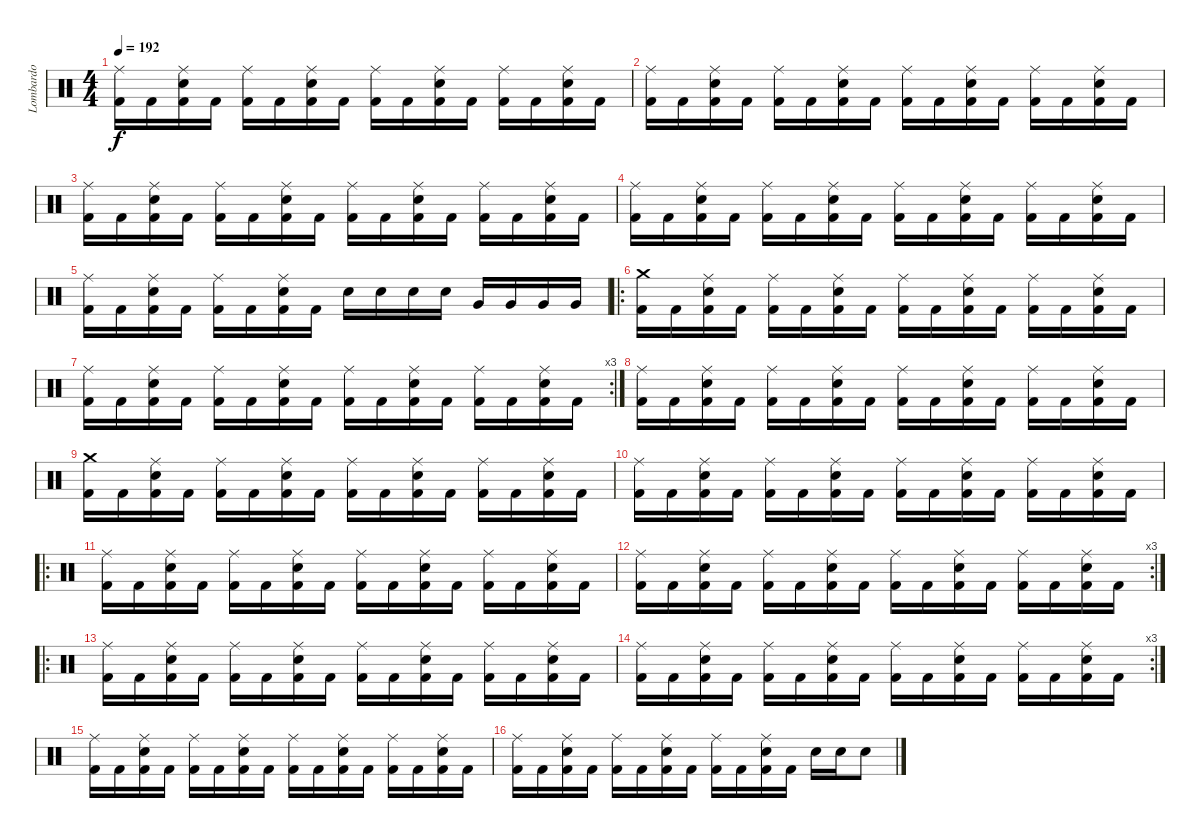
\track ("Lombardo" "Lombardo") {instrument percussion}
\staff {score}
\articulation defaults
\ts (4 4)
\tempo 192
\clef neutral
\ks c
("Ride (middle)" "Kick (hit) 2").16{dy f} "Kick (hit) 2".16 ("Ride (middle)" "Snare (hit) 2" "Kick (hit) 2").16 "Kick (hit) 2".16 ("Ride (middle)" "Kick (hit) 2").16 "Kick (hit) 2".16 ("Ride (middle)" "Snare (hit) 2" "Kick (hit) 2").16 "Kick (hit) 2".16 ("Ride (middle)" "Kick (hit) 2").16 "Kick (hit) 2".16 ("Ride (middle)" "Snare (hit) 2" "Kick (hit) 2").16 "Kick (hit) 2".16 ("Ride (middle)" "Kick (hit) 2").16 "Kick (hit) 2".16 ("Ride (middle)" "Snare (hit) 2" "Kick (hit) 2").16 "Kick (hit) 2".16 |
("Ride (middle)" "Kick (hit) 2").16 "Kick (hit) 2".16 ("Ride (middle)" "Snare (hit) 2" "Kick (hit) 2").16 "Kick (hit) 2".16 ("Ride (middle)" "Kick (hit) 2").16 "Kick (hit) 2".16 ("Ride (middle)" "Snare (hit) 2" "Kick (hit) 2").16 "Kick (hit) 2".16 ("Ride (middle)" "Kick (hit) 2").16 "Kick (hit) 2".16 ("Ride (middle)" "Snare (hit) 2" "Kick (hit) 2").16 "Kick (hit) 2".16 ("Ride (middle)" "Kick (hit) 2").16 "Kick (hit) 2".16 ("Ride (middle)" "Snare (hit) 2" "Kick (hit) 2").16 "Kick (hit) 2".16 |
("Ride (middle)" "Kick (hit) 2").16 "Kick (hit) 2".16 ("Ride (middle)" "Snare (hit) 2" "Kick (hit) 2").16 "Kick (hit) 2".16 ("Ride (middle)" "Kick (hit) 2").16 "Kick (hit) 2".16 ("Ride (middle)" "Snare (hit) 2" "Kick (hit) 2").16 "Kick (hit) 2".16 ("Ride (middle)" "Kick (hit) 2").16 "Kick (hit) 2".16 ("Ride (middle)" "Snare (hit) 2" "Kick (hit) 2").16 "Kick (hit) 2".16 ("Ride (middle)" "Kick (hit) 2").16 "Kick (hit) 2".16 ("Ride (middle)" "Snare (hit) 2" "Kick (hit) 2").16 "Kick (hit) 2".16 |
("Ride (middle)" "Kick (hit) 2").16 "Kick (hit) 2".16 ("Ride (middle)" "Snare (hit) 2" "Kick (hit) 2").16 "Kick (hit) 2".16 ("Ride (middle)" "Kick (hit) 2").16 "Kick (hit) 2".16 ("Ride (middle)" "Snare (hit) 2" "Kick (hit) 2").16 "Kick (hit) 2".16 ("Ride (middle)" "Kick (hit) 2").16 "Kick (hit) 2".16 ("Ride (middle)" "Snare (hit) 2" "Kick (hit) 2").16 "Kick (hit) 2".16 ("Ride (middle)" "Kick (hit) 2").16 "Kick (hit) 2".16 ("Ride (middle)" "Snare (hit) 2" "Kick (hit) 2").16 "Kick (hit) 2".16 |
("Ride (middle)" "Kick (hit) 2").16 "Kick (hit) 2".16 ("Ride (middle)" "Snare (hit) 2" "Kick (hit) 2").16 "Kick (hit) 2".16 ("Ride (middle)" "Kick (hit) 2").16 "Kick (hit) 2".16 ("Ride (middle)" "Snare (hit) 2" "Kick (hit) 2").16 "Kick (hit) 2".16 "Snare (hit) 2".16 "Snare (hit) 2".16 "Snare (hit) 2".16 "Snare (hit) 2".16 "Very Low Tom (hit)".16 "Very Low Tom (hit)".16 "Very Low Tom (hit)".16 "Very Low Tom (hit)".16 |
\ro
("Crash medium (hit)" "Kick (hit) 2").16 "Kick (hit) 2".16 ("Ride (middle)" "Snare (hit) 2" "Kick (hit) 2").16 "Kick (hit) 2".16 ("Ride (middle)" "Kick (hit) 2").16 "Kick (hit) 2".16 ("Ride (middle)" "Snare (hit) 2" "Kick (hit) 2").16 "Kick (hit) 2".16 ("Ride (middle)" "Kick (hit) 2").16 "Kick (hit) 2".16 ("Ride (middle)" "Snare (hit) 2" "Kick (hit) 2").16 "Kick (hit) 2".16 ("Ride (middle)" "Kick (hit) 2").16 "Kick (hit) 2".16 ("Ride (middle)" "Snare (hit) 2" "Kick (hit) 2").16 "Kick (hit) 2".16 |
\rc 3
("Ride (middle)" "Kick (hit) 2").16 "Kick (hit) 2".16 ("Ride (middle)" "Snare (hit) 2" "Kick (hit) 2").16 "Kick (hit) 2".16 ("Ride (middle)" "Kick (hit) 2").16 "Kick (hit) 2".16 ("Ride (middle)" "Snare (hit) 2" "Kick (hit) 2").16 "Kick (hit) 2".16 ("Ride (middle)" "Kick (hit) 2").16 "Kick (hit) 2".16 ("Ride (middle)" "Snare (hit) 2" "Kick (hit) 2").16 "Kick (hit) 2".16 ("Ride (middle)" "Kick (hit) 2").16 "Kick (hit) 2".16 ("Ride (middle)" "Snare (hit) 2" "Kick (hit) 2").16 "Kick (hit) 2".16 |
("Ride (middle)" "Kick (hit) 2").16 "Kick (hit) 2".16 ("Ride (middle)" "Snare (hit) 2" "Kick (hit) 2").16 "Kick (hit) 2".16 ("Ride (middle)" "Kick (hit) 2").16 "Kick (hit) 2".16 ("Ride (middle)" "Snare (hit) 2" "Kick (hit) 2").16 "Kick (hit) 2".16 ("Ride (middle)" "Kick (hit) 2").16 "Kick (hit) 2".16 ("Ride (middle)" "Snare (hit) 2" "Kick (hit) 2").16 "Kick (hit) 2".16 ("Ride (middle)" "Kick (hit) 2").16 "Kick (hit) 2".16 ("Ride (middle)" "Snare (hit) 2" "Kick (hit) 2").16 "Kick (hit) 2".16 |
("Crash medium (hit)" "Kick (hit) 2").16 "Kick (hit) 2".16 ("Ride (middle)" "Snare (hit) 2" "Kick (hit) 2").16 "Kick (hit) 2".16 ("Ride (middle)" "Kick (hit) 2").16 "Kick (hit) 2".16 ("Ride (middle)" "Snare (hit) 2" "Kick (hit) 2").16 "Kick (hit) 2".16 ("Ride (middle)" "Kick (hit) 2").16 "Kick (hit) 2".16 ("Ride (middle)" "Snare (hit) 2" "Kick (hit) 2").16 "Kick (hit) 2".16 ("Ride (middle)" "Kick (hit) 2").16 "Kick (hit) 2".16 ("Ride (middle)" "Snare (hit) 2" "Kick (hit) 2").16 "Kick (hit) 2".16 |
("Ride (middle)" "Kick (hit) 2").16 "Kick (hit) 2".16 ("Ride (middle)" "Snare (hit) 2" "Kick (hit) 2").16 "Kick (hit) 2".16 ("Ride (middle)" "Kick (hit) 2").16 "Kick (hit) 2".16 ("Ride (middle)" "Snare (hit) 2" "Kick (hit) 2").16 "Kick (hit) 2".16 ("Ride (middle)" "Kick (hit) 2").16 "Kick (hit) 2".16 ("Ride (middle)" "Snare (hit) 2" "Kick (hit) 2").16 "Kick (hit) 2".16 ("Ride (middle)" "Kick (hit) 2").16 "Kick (hit) 2".16 ("Ride (middle)" "Snare (hit) 2" "Kick (hit) 2").16 "Kick (hit) 2".16 |
\ro
("Ride (middle)" "Kick (hit) 2").16 "Kick (hit) 2".16 ("Ride (middle)" "Snare (hit) 2" "Kick (hit) 2").16 "Kick (hit) 2".16 ("Ride (middle)" "Kick (hit) 2").16 "Kick (hit) 2".16 ("Ride (middle)" "Snare (hit) 2" "Kick (hit) 2").16 "Kick (hit) 2".16 ("Ride (middle)" "Kick (hit) 2").16 "Kick (hit) 2".16 ("Ride (middle)" "Snare (hit) 2" "Kick (hit) 2").16 "Kick (hit) 2".16 ("Ride (middle)" "Kick (hit) 2").16 "Kick (hit) 2".16 ("Ride (middle)" "Snare (hit) 2" "Kick (hit) 2").16 "Kick (hit) 2".16 |
\rc 3
("Ride (middle)" "Kick (hit) 2").16 "Kick (hit) 2".16 ("Ride (middle)" "Snare (hit) 2" "Kick (hit) 2").16 "Kick (hit) 2".16 ("Ride (middle)" "Kick (hit) 2").16 "Kick (hit) 2".16 ("Ride (middle)" "Snare (hit) 2" "Kick (hit) 2").16 "Kick (hit) 2".16 ("Ride (middle)" "Kick (hit) 2").16 "Kick (hit) 2".16 ("Ride (middle)" "Snare (hit) 2" "Kick (hit) 2").16 "Kick (hit) 2".16 ("Ride (middle)" "Kick (hit) 2").16 "Kick (hit) 2".16 ("Ride (middle)" "Snare (hit) 2" "Kick (hit) 2").16 "Kick (hit) 2".16 |
\ro
("Ride (middle)" "Kick (hit) 2").16 "Kick (hit) 2".16 ("Ride (middle)" "Snare (hit) 2" "Kick (hit) 2").16 "Kick (hit) 2".16 ("Ride (middle)" "Kick (hit) 2").16 "Kick (hit) 2".16 ("Ride (middle)" "Snare (hit) 2" "Kick (hit) 2").16 "Kick (hit) 2".16 ("Ride (middle)" "Kick (hit) 2").16 "Kick (hit) 2".16 ("Ride (middle)" "Snare (hit) 2" "Kick (hit) 2").16 "Kick (hit) 2".16 ("Ride (middle)" "Kick (hit) 2").16 "Kick (hit) 2".16 ("Ride (middle)" "Snare (hit) 2" "Kick (hit) 2").16 "Kick (hit) 2".16 |
\rc 3
("Ride (middle)" "Kick (hit) 2").16 "Kick (hit) 2".16 ("Ride (middle)" "Snare (hit) 2" "Kick (hit) 2").16 "Kick (hit) 2".16 ("Ride (middle)" "Kick (hit) 2").16 "Kick (hit) 2".16 ("Ride (middle)" "Snare (hit) 2" "Kick (hit) 2").16 "Kick (hit) 2".16 ("Ride (middle)" "Kick (hit) 2").16 "Kick (hit) 2".16 ("Ride (middle)" "Snare (hit) 2" "Kick (hit) 2").16 "Kick (hit) 2".16 ("Ride (middle)" "Kick (hit) 2").16 "Kick (hit) 2".16 ("Ride (middle)" "Snare (hit) 2" "Kick (hit) 2").16 "Kick (hit) 2".16 |
("Ride (middle)" "Kick (hit) 2").16 "Kick (hit) 2".16 ("Ride (middle)" "Snare (hit) 2" "Kick (hit) 2").16 "Kick (hit) 2".16 ("Ride (middle)" "Kick (hit) 2").16 "Kick (hit) 2".16 ("Ride (middle)" "Snare (hit) 2" "Kick (hit) 2").16 "Kick (hit) 2".16 ("Ride (middle)" "Kick (hit) 2").16 "Kick (hit) 2".16 ("Ride (middle)" "Snare (hit) 2" "Kick (hit) 2").16 "Kick (hit) 2".16 ("Ride (middle)" "Kick (hit) 2").16 "Kick (hit) 2".16 ("Ride (middle)" "Snare (hit) 2" "Kick (hit) 2").16 "Kick (hit) 2".16 |
("Ride (middle)" "Kick (hit) 2").16 "Kick (hit) 2".16 ("Ride (middle)" "Snare (hit) 2" "Kick (hit) 2").16 "Kick (hit) 2".16 ("Ride (middle)" "Kick (hit) 2").16 "Kick (hit) 2".16 ("Ride (middle)" "Snare (hit) 2" "Kick (hit) 2").16 "Kick (hit) 2".16 ("Ride (middle)" "Kick (hit) 2").16 "Kick (hit) 2".16 ("Ride (middle)" "Snare (hit) 2" "Kick (hit) 2").16 "Kick (hit) 2".16 "Snare (hit) 2".16 "Snare (hit) 2".16 "Snare (hit) 2".8
